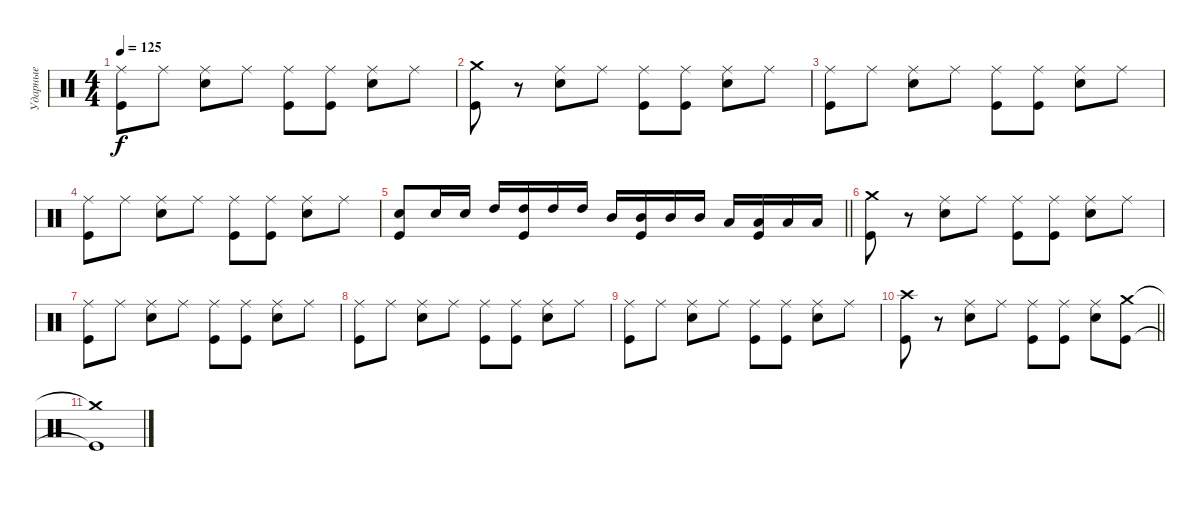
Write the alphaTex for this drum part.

\track ("Ударные" "Ударные") {instrument percussion}
\staff {score}
\articulation defaults
\ts (4 4)
\tempo 125
\clef neutral
\ks c
("Ride (middle)" "Kick (hit)").8{dy f} "Ride (middle)".8 ("Ride (middle)" "Electric Snare (hit)").8 "Ride (middle)".8 ("Ride (middle)" "Kick (hit)").8 ("Ride (middle)" "Kick (hit)").8 ("Ride (middle)" "Electric Snare (hit)").8 "Ride (middle)".8 |
("Crash medium (hit)" "Kick (hit)").8 r.8 ("Ride (middle)" "Electric Snare (hit)").8 "Ride (middle)".8 ("Ride (middle)" "Kick (hit)").8 ("Ride (middle)" "Kick (hit)").8 ("Ride (middle)" "Electric Snare (hit)").8 "Ride (middle)".8 |
("Ride (middle)" "Kick (hit)").8 "Ride (middle)".8 ("Ride (middle)" "Electric Snare (hit)").8 "Ride (middle)".8 ("Ride (middle)" "Kick (hit)").8 ("Ride (middle)" "Kick (hit)").8 ("Ride (middle)" "Electric Snare (hit)").8 "Ride (middle)".8 |
("Ride (middle)" "Kick (hit)").8 "Ride (middle)".8 ("Ride (middle)" "Electric Snare (hit)").8 "Ride (middle)".8 ("Ride (middle)" "Kick (hit)").8 ("Ride (middle)" "Kick (hit)").8 ("Ride (middle)" "Electric Snare (hit)").8 "Ride (middle)".8 |
\barLineRight lightlight
("Electric Snare (hit)" "Kick (hit)").8 "Electric Snare (hit)".16 "Electric Snare (hit)".16 "High Tom (hit)".16 ("High Tom (hit)" "Kick (hit)").16 "High Tom (hit)".16 "High Tom (hit)".16 "Mid Tom (hit)".16 ("Mid Tom (hit)" "Kick (hit)").16 "Mid Tom (hit)".16 "Mid Tom (hit)".16 "Low Tom (hit)".16 ("Low Tom (hit)" "Kick (hit)").16 "Low Tom (hit)".16 "Low Tom (hit)".16 |
\section ("" " ")
("Crash medium (hit)" "Kick (hit)").8 r.8 ("Ride (middle)" "Electric Snare (hit)").8 "Ride (middle)".8 ("Ride (middle)" "Kick (hit)").8 ("Ride (middle)" "Kick (hit)").8 ("Ride (middle)" "Electric Snare (hit)").8 "Ride (middle)".8 |
("Ride (middle)" "Kick (hit)").8 "Ride (middle)".8 ("Ride (middle)" "Electric Snare (hit)").8 "Ride (middle)".8 ("Ride (middle)" "Kick (hit)").8 ("Ride (middle)" "Kick (hit)").8 ("Ride (middle)" "Electric Snare (hit)").8 "Ride (middle)".8 |
("Ride (middle)" "Kick (hit)").8 "Ride (middle)".8 ("Ride (middle)" "Electric Snare (hit)").8 "Ride (middle)".8 ("Ride (middle)" "Kick (hit)").8 ("Ride (middle)" "Kick (hit)").8 ("Ride (middle)" "Electric Snare (hit)").8 "Ride (middle)".8 |
("Ride (middle)" "Kick (hit)").8 "Ride (middle)".8 ("Ride (middle)" "Electric Snare (hit)").8 "Ride (middle)".8 ("Ride (middle)" "Kick (hit)").8 ("Ride (middle)" "Kick (hit)").8 ("Ride (middle)" "Electric Snare (hit)").8 "Ride (middle)".8 |
\barLineRight lightlight
("Crash high (hit)" "Kick (hit)").8 r.8 ("Ride (middle)" "Electric Snare (hit)").8 "Ride (middle)".8 ("Ride (middle)" "Kick (hit)").8 ("Ride (middle)" "Kick (hit)").8 ("Ride (middle)" "Electric Snare (hit)").8 ("Crash medium (hit)" "Kick (hit)").8 |
\section ("" " ")
("Crash medium (hit)"{t} "Kick (hit)"{t}).1
